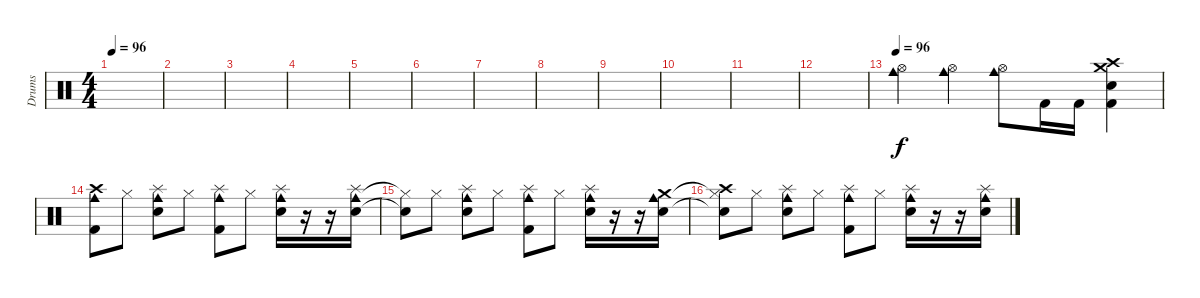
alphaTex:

\track ("Drums" "Drums") {instrument percussion}
\staff {score}
\articulation defaults
\ts (4 4)
\tempo 96
\tempo 88
\tempo 96
\clef neutral
\ks c
|
|
|
|
|
|
|
|
|
|
|
|
\tempo 96
("Cowbell medium (hit)" "Hi-Hat (open)").4 ("Cowbell medium (hit)" "Hi-Hat (open)").4 ("Cowbell medium (hit)" "Hi-Hat (open)").8 "Kick (hit) 2".16 "Kick (hit) 2".16 ("Snare (hit) 2" "Crash medium (hit)" "Kick (hit) 2" "Crash high (hit)").4 |
("Kick (hit) 2" "Cowbell medium (hit)" "Crash high (hit)").8 "Hi-Hat (closed)".8 ("Snare (hit) 2" "Cowbell medium (hit)" "Splash (hit)").8 "Hi-Hat (closed)".8 ("Kick (hit) 2" "Cowbell medium (hit)" "Splash (hit)").8 "Hi-Hat (closed)".8 ("Snare (hit) 2" "Cowbell medium (hit)" "Splash (hit)").16 r.16 r.16 ("Snare (hit) 2" "Cowbell medium (hit)" "Splash (hit)").16 |
("Snare (hit) 2"{t} "Hi-Hat (closed)"{t}).8 "Hi-Hat (closed)".8 ("Snare (hit) 2" "Cowbell medium (hit)" "Splash (hit)").8 "Hi-Hat (closed)".8 ("Kick (hit) 2" "Cowbell medium (hit)" "Splash (hit)").8 "Hi-Hat (closed)".8 ("Snare (hit) 2" "Cowbell medium (hit)" "Splash (hit)").16 r.16 r.16 ("Snare (hit) 2" "Cowbell medium (hit)" "Crash medium (hit)").16 |
("Snare (hit) 2"{t} "Hi-Hat (closed)"{t} "Crash high (hit)").8 "Hi-Hat (closed)".8 ("Snare (hit) 2" "Cowbell medium (hit)" "Splash (hit)").8 "Hi-Hat (closed)".8 ("Kick (hit) 2" "Cowbell medium (hit)" "Splash (hit)").8 "Hi-Hat (closed)".8 ("Snare (hit) 2" "Cowbell medium (hit)" "Splash (hit)").16 r.16 r.16 ("Snare (hit) 2" "Cowbell medium (hit)" "Splash (hit)").16
